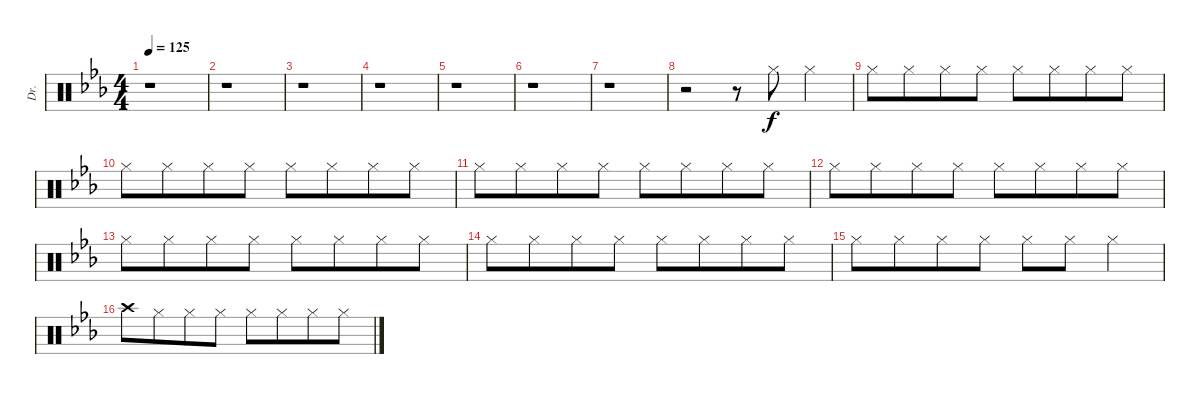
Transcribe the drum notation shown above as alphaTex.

\track ("Dr." "Dr.") {instrument percussion}
\staff {score}
\articulation defaults
\ts (4 4)
\tempo 125
\clef neutral
\ks eb
r.1{dy f} |
r.1 |
r.1 |
r.1 |
r.1 |
r.1 |
r.1 |
r.2 r.8 "Hi-Hat (closed)".8 "Hi-Hat (closed)".4 |
"Hi-Hat (closed)".8 "Hi-Hat (closed)".8{beam merge} "Hi-Hat (closed)".8 "Hi-Hat (closed)".8 "Hi-Hat (closed)".8 "Hi-Hat (closed)".8{beam merge} "Hi-Hat (closed)".8 "Hi-Hat (closed)".8 |
"Hi-Hat (closed)".8 "Hi-Hat (closed)".8{beam merge} "Hi-Hat (closed)".8 "Hi-Hat (closed)".8 "Hi-Hat (closed)".8 "Hi-Hat (closed)".8{beam merge} "Hi-Hat (closed)".8 "Hi-Hat (closed)".8 |
"Hi-Hat (closed)".8 "Hi-Hat (closed)".8{beam merge} "Hi-Hat (closed)".8 "Hi-Hat (closed)".8 "Hi-Hat (closed)".8 "Hi-Hat (closed)".8{beam merge} "Hi-Hat (closed)".8 "Hi-Hat (closed)".8 |
"Hi-Hat (closed)".8 "Hi-Hat (closed)".8{beam merge} "Hi-Hat (closed)".8 "Hi-Hat (closed)".8 "Hi-Hat (closed)".8 "Hi-Hat (closed)".8{beam merge} "Hi-Hat (closed)".8 "Hi-Hat (closed)".8 |
"Hi-Hat (closed)".8 "Hi-Hat (closed)".8{beam merge} "Hi-Hat (closed)".8 "Hi-Hat (closed)".8 "Hi-Hat (closed)".8 "Hi-Hat (closed)".8{beam merge} "Hi-Hat (closed)".8 "Hi-Hat (closed)".8 |
"Hi-Hat (closed)".8 "Hi-Hat (closed)".8{beam merge} "Hi-Hat (closed)".8 "Hi-Hat (closed)".8 "Hi-Hat (closed)".8 "Hi-Hat (closed)".8{beam merge} "Hi-Hat (closed)".8 "Hi-Hat (closed)".8 |
"Hi-Hat (closed)".8 "Hi-Hat (closed)".8{beam merge} "Hi-Hat (closed)".8 "Hi-Hat (closed)".8 "Hi-Hat (closed)".8 "Hi-Hat (closed)".8 "Hi-Hat (closed)".4 |
"Crash high (hit)".8 "Hi-Hat (closed)".8{beam merge} "Hi-Hat (closed)".8 "Hi-Hat (closed)".8 "Hi-Hat (closed)".8 "Hi-Hat (closed)".8{beam merge} "Hi-Hat (closed)".8 "Hi-Hat (closed)".8
